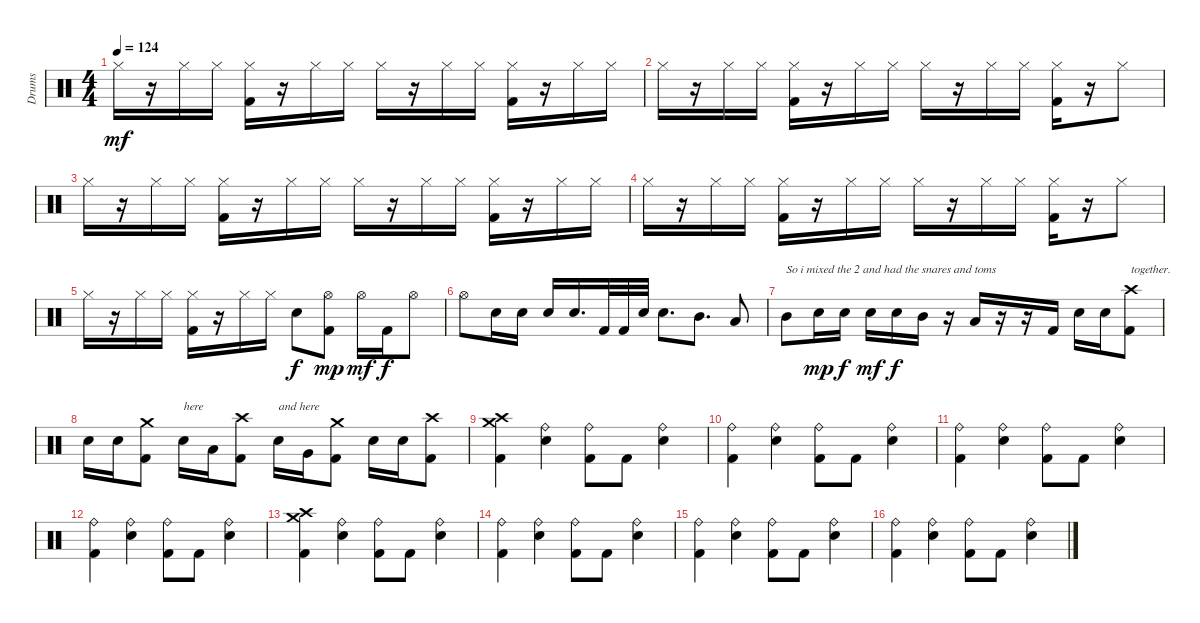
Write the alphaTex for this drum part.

\track ("Drums" "Drums") {instrument percussion}
\staff {score}
\articulation defaults
\ts (4 4)
\tempo 124
\clef neutral
\ks c "Hi-Hat (closed)".16{dy mf}
r.16 "Hi-Hat (closed)".16 "Hi-Hat (closed)".16 ("Hi-Hat (closed)" "Kick (hit) 2").16 r.16 "Hi-Hat (closed)".16 "Hi-Hat (closed)".16 "Hi-Hat (closed)".16 r.16 "Hi-Hat (closed)".16 "Hi-Hat (closed)".16 ("Hi-Hat (closed)" "Kick (hit) 2").16 r.16 "Hi-Hat (closed)".16 "Hi-Hat (closed)".16 |
"Hi-Hat (closed)".16 r.16 "Hi-Hat (closed)".16 "Hi-Hat (closed)".16 ("Hi-Hat (closed)" "Kick (hit) 2").16 r.16 "Hi-Hat (closed)".16 "Hi-Hat (closed)".16 "Hi-Hat (closed)".16 r.16 "Hi-Hat (closed)".16 "Hi-Hat (closed)".16 ("Hi-Hat (closed)" "Kick (hit) 2").16 r.16 "Hi-Hat (closed)".8 |
"Hi-Hat (closed)".16 r.16 "Hi-Hat (closed)".16 "Hi-Hat (closed)".16 ("Hi-Hat (closed)" "Kick (hit) 2").16 r.16 "Hi-Hat (closed)".16 "Hi-Hat (closed)".16 "Hi-Hat (closed)".16 r.16 "Hi-Hat (closed)".16 "Hi-Hat (closed)".16 ("Hi-Hat (closed)" "Kick (hit) 2").16 r.16 "Hi-Hat (closed)".16 "Hi-Hat (closed)".16 |
"Hi-Hat (closed)".16 r.16 "Hi-Hat (closed)".16 "Hi-Hat (closed)".16 ("Hi-Hat (closed)" "Kick (hit) 2").16 r.16 "Hi-Hat (closed)".16 "Hi-Hat (closed)".16 "Hi-Hat (closed)".16 r.16 "Hi-Hat (closed)".16 "Hi-Hat (closed)".16 ("Hi-Hat (closed)" "Kick (hit) 2").16 r.16 "Hi-Hat (closed)".8 |
"Hi-Hat (closed)".16 r.16 "Hi-Hat (closed)".16 "Hi-Hat (closed)".16 ("Hi-Hat (closed)" "Kick (hit) 2").16 r.16 "Hi-Hat (closed)".16 "Hi-Hat (closed)".16 "Electric Snare (hit)".8{dy f} ("Hi-Hat (open)" "Kick (hit) 2").8{dy mp} "Hi-Hat (open)".16{dy mf} "Kick (hit) 2".16{dy f} "Hi-Hat (open)".8 |
"Hi-Hat (open)".8 "Electric Snare (hit)".16 "Electric Snare (hit)".16 "Electric Snare (hit)".16 "Electric Snare (hit)".16{d} "Kick (hit) 2".32 "Kick (hit) 2".32 "Electric Snare (hit)".32 "Electric Snare (hit)".8{d} "Mid Tom (hit)".8{d} "Low Tom (hit)".8 |
"Mid Tom (hit)".8{txt "So i mixed the 2 and had the snares and toms"} "Electric Snare (hit)".16{dy mp} "Electric Snare (hit)".16{dy f} "Electric Snare (hit)".16{dy mf} "Electric Snare (hit)".16{dy f} "Mid Tom (hit)".16 r.16 "Low Tom (hit)".16 r.16 r.16 "Kick (hit) 2".16 "Electric Snare (hit)".16 "Electric Snare (hit)".16 ("Crash high (hit)" "Kick (hit) 2").8{txt "together."} |
"Electric Snare (hit)".16 "Electric Snare (hit)".16 ("Crash medium (hit)" "Kick (hit) 2").8 "Electric Snare (hit)".16{txt "here"} "Low Tom (hit)".16 ("Crash high (hit)" "Kick (hit) 2").8 "Electric Snare (hit)".16{txt "and here"} "Very Low Tom (hit)".16 ("Crash medium (hit)" "Kick (hit) 2").8 "Electric Snare (hit)".16 "Electric Snare (hit)".16 ("Crash high (hit)" "Kick (hit) 2").8 |
("Crash high (hit)" "Crash medium (hit)" "Kick (hit) 2").4 ("Ride (bell)" "Electric Snare (hit)").4 ("Ride (bell)" "Kick (hit) 2").8 "Kick (hit) 2".8 ("Ride (bell)" "Electric Snare (hit)").4 |
("Ride (bell)" "Kick (hit) 2").4 ("Ride (bell)" "Electric Snare (hit)").4 ("Ride (bell)" "Kick (hit) 2").8 "Kick (hit) 2".8 ("Ride (bell)" "Electric Snare (hit)").4 |
("Ride (bell)" "Kick (hit) 2").4 ("Ride (bell)" "Electric Snare (hit)").4 ("Ride (bell)" "Kick (hit) 2").8 "Kick (hit) 2".8 ("Ride (bell)" "Electric Snare (hit)").4 |
("Ride (bell)" "Kick (hit) 2").4 ("Ride (bell)" "Electric Snare (hit)").4 ("Ride (bell)" "Kick (hit) 2").8 "Kick (hit) 2".8 ("Ride (bell)" "Electric Snare (hit)").4 |
("Crash high (hit)" "Crash medium (hit)" "Kick (hit) 2").4 ("Ride (bell)" "Electric Snare (hit)").4 ("Ride (bell)" "Kick (hit) 2").8 "Kick (hit) 2".8 ("Ride (bell)" "Electric Snare (hit)").4 |
("Ride (bell)" "Kick (hit) 2").4 ("Ride (bell)" "Electric Snare (hit)").4 ("Ride (bell)" "Kick (hit) 2").8 "Kick (hit) 2".8 ("Ride (bell)" "Electric Snare (hit)").4 |
("Ride (bell)" "Kick (hit) 2").4 ("Ride (bell)" "Electric Snare (hit)").4 ("Ride (bell)" "Kick (hit) 2").8 "Kick (hit) 2".8 ("Ride (bell)" "Electric Snare (hit)").4 |
("Ride (bell)" "Kick (hit) 2").4 ("Ride (bell)" "Electric Snare (hit)").4 ("Ride (bell)" "Kick (hit) 2").8 "Kick (hit) 2".8 ("Ride (bell)" "Electric Snare (hit)").4
